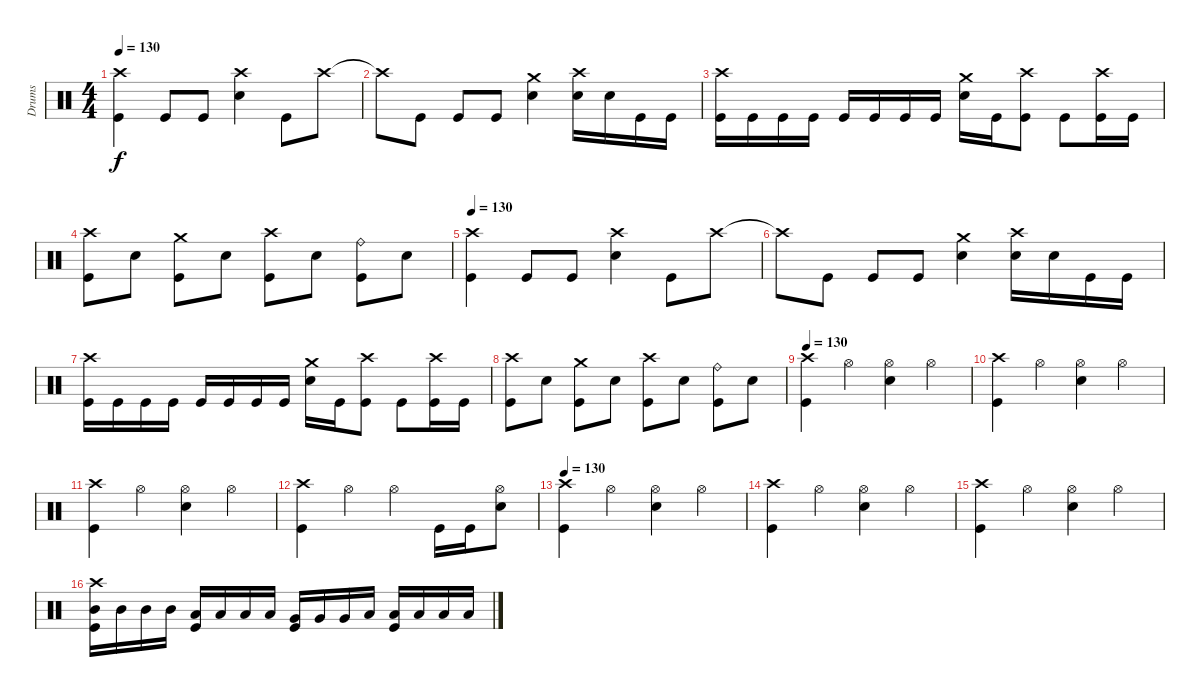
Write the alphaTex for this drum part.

\track ("Drums" "Drums") {solo instrument percussion}
\staff {score}
\articulation defaults
\ts (4 4)
\tempo 140
\tempo 130
\clef neutral
\ks c
("Crash high (hit)" "Kick (hit)").4{dy f} "Kick (hit)".8 "Kick (hit)".8 ("Crash high (hit)" "Electric Snare (hit)").4 "Kick (hit)".8 "Crash high (hit)".8 |
"Crash high (hit)"{t}.8 "Kick (hit)".8 "Kick (hit)".8 "Kick (hit)".8 ("Crash medium (hit)" "Electric Snare (hit)").4 ("Crash high (hit)" "Electric Snare (hit)").16 "Electric Snare (hit)".16 "Kick (hit)".16 "Kick (hit)".16 |
("Crash high (hit)" "Kick (hit)").16 "Kick (hit)".16 "Kick (hit)".16 "Kick (hit)".16 "Kick (hit)".16 "Kick (hit)".16 "Kick (hit)".16 "Kick (hit)".16 ("Crash medium (hit)" "Electric Snare (hit)").16 "Kick (hit)".16 ("Crash high (hit)" "Kick (hit)").8 "Kick (hit)".8 ("Crash high (hit)" "Kick (hit)").16 "Kick (hit)".16 |
("Crash high (hit)" "Kick (hit)").8 "Electric Snare (hit)".8 ("Crash medium (hit)" "Kick (hit)").8 "Electric Snare (hit)".8 ("Crash high (hit)" "Kick (hit)").8 "Electric Snare (hit)".8 ("Ride (bell)" "Kick (hit)").8 "Electric Snare (hit)".8 |
\tempo 140
\tempo 130
("Crash high (hit)" "Kick (hit)").4 "Kick (hit)".8 "Kick (hit)".8 ("Crash high (hit)" "Electric Snare (hit)").4 "Kick (hit)".8 "Crash high (hit)".8 |
"Crash high (hit)"{t}.8 "Kick (hit)".8 "Kick (hit)".8 "Kick (hit)".8 ("Crash medium (hit)" "Electric Snare (hit)").4 ("Crash high (hit)" "Electric Snare (hit)").16 "Electric Snare (hit)".16 "Kick (hit)".16 "Kick (hit)".16 |
("Crash high (hit)" "Kick (hit)").16 "Kick (hit)".16 "Kick (hit)".16 "Kick (hit)".16 "Kick (hit)".16 "Kick (hit)".16 "Kick (hit)".16 "Kick (hit)".16 ("Crash medium (hit)" "Electric Snare (hit)").16 "Kick (hit)".16 ("Crash high (hit)" "Kick (hit)").8 "Kick (hit)".8 ("Crash high (hit)" "Kick (hit)").16 "Kick (hit)".16 |
("Crash high (hit)" "Kick (hit)").8 "Electric Snare (hit)".8 ("Crash medium (hit)" "Kick (hit)").8 "Electric Snare (hit)".8 ("Crash high (hit)" "Kick (hit)").8 "Electric Snare (hit)".8 ("Ride (bell)" "Kick (hit)").8 "Electric Snare (hit)".8 |
\tempo 130
("Crash high (hit)" "Kick (hit)").4 "Hi-Hat (open)".4 ("Hi-Hat (open)" "Electric Snare (hit)").4 "Hi-Hat (open)".4 |
("Crash high (hit)" "Kick (hit)").4 "Hi-Hat (open)".4 ("Hi-Hat (open)" "Electric Snare (hit)").4 "Hi-Hat (open)".4 |
("Crash high (hit)" "Kick (hit)").4 "Hi-Hat (open)".4 ("Hi-Hat (open)" "Electric Snare (hit)").4 "Hi-Hat (open)".4 |
("Crash high (hit)" "Kick (hit)").4 "Hi-Hat (open)".4 "Hi-Hat (open)".4 "Kick (hit)".16 "Kick (hit)".16 ("Hi-Hat (open)" "Electric Snare (hit)").8 |
\tempo 130
("Crash high (hit)" "Kick (hit)").4 "Hi-Hat (open)".4 ("Hi-Hat (open)" "Electric Snare (hit)").4 "Hi-Hat (open)".4 |
("Crash high (hit)" "Kick (hit)").4 "Hi-Hat (open)".4 ("Hi-Hat (open)" "Electric Snare (hit)").4 "Hi-Hat (open)".4 |
("Crash high (hit)" "Kick (hit)").4 "Hi-Hat (open)".4 ("Hi-Hat (open)" "Electric Snare (hit)").4 "Hi-Hat (open)".4 |
("Crash high (hit)" "Mid Tom (hit)" "Kick (hit)").16 "Mid Tom (hit)".16 "Mid Tom (hit)".16 "Mid Tom (hit)".16 ("Low Tom (hit)" "Kick (hit)").16 "Low Tom (hit)".16 "Low Tom (hit)".16 "Low Tom (hit)".16 ("Very Low Tom (hit)" "Kick (hit)").16 "Very Low Tom (hit)".16 "Very Low Tom (hit)".16 "Low Floor Tom (hit)".16 ("Low Floor Tom (hit)" "Kick (hit)").16 "Low Floor Tom (hit)".16 "Low Floor Tom (hit)".16 "Low Floor Tom (hit)".16
